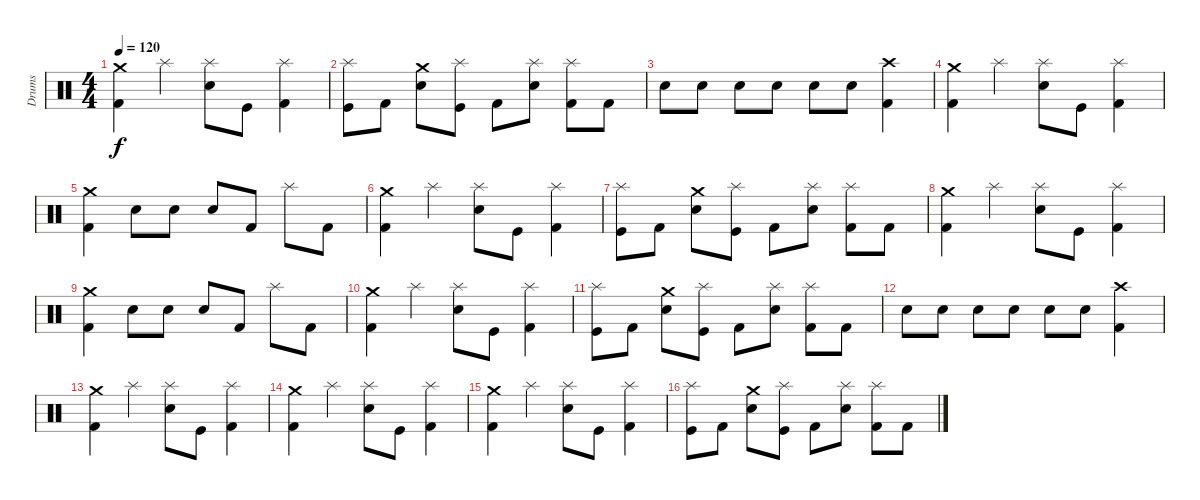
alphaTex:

\track ("Drums" "Drums") {instrument percussion}
\staff {score}
\articulation defaults
\ts (4 4)
\tempo 120
\clef neutral
\ks c
("Crash medium (hit)" "Kick (hit) 2").4{dy f} "Splash (hit)".4 ("Splash (hit)" "Snare (hit) 2").8 "Kick (hit)".8 ("Splash (hit)" "Kick (hit) 2").4 |
("Splash (hit)" "Kick (hit)").8 "Kick (hit) 2".8 ("Crash medium (hit)" "Snare (hit) 2").8 ("Splash (hit)" "Kick (hit)").8 "Kick (hit) 2".8 ("Splash (hit)" "Snare (hit) 2").8 ("Splash (hit)" "Kick (hit) 2").8 "Kick (hit) 2".8 |
"Snare (hit) 2".8 "Snare (hit) 2".8 "Snare (hit) 2".8 "Snare (hit) 2".8 "Snare (hit) 2".8 "Snare (hit) 2".8 ("Crash high (hit)" "Kick (hit) 2").4 |
("Crash medium (hit)" "Kick (hit) 2").4 "Splash (hit)".4 ("Splash (hit)" "Snare (hit) 2").8 "Kick (hit)".8 ("Splash (hit)" "Kick (hit) 2").4 |
("Crash medium (hit)" "Kick (hit) 2").4 "Snare (hit) 2".8 "Snare (hit) 2".8 "Snare (hit) 2".8 "Kick (hit) 2".8 "Splash (hit)".8 "Kick (hit) 2".8 |
("Crash medium (hit)" "Kick (hit) 2").4 "Splash (hit)".4 ("Splash (hit)" "Snare (hit) 2").8 "Kick (hit)".8 ("Splash (hit)" "Kick (hit) 2").4 |
("Splash (hit)" "Kick (hit)").8 "Kick (hit) 2".8 ("Crash medium (hit)" "Snare (hit) 2").8 ("Splash (hit)" "Kick (hit)").8 "Kick (hit) 2".8 ("Splash (hit)" "Snare (hit) 2").8 ("Splash (hit)" "Kick (hit) 2").8 "Kick (hit) 2".8 |
("Crash medium (hit)" "Kick (hit) 2").4 "Splash (hit)".4 ("Splash (hit)" "Snare (hit) 2").8 "Kick (hit)".8 ("Splash (hit)" "Kick (hit) 2").4 |
("Crash medium (hit)" "Kick (hit) 2").4 "Snare (hit) 2".8 "Snare (hit) 2".8 "Snare (hit) 2".8 "Kick (hit) 2".8 "Splash (hit)".8 "Kick (hit) 2".8 |
("Crash medium (hit)" "Kick (hit) 2").4 "Splash (hit)".4 ("Splash (hit)" "Snare (hit) 2").8 "Kick (hit)".8 ("Splash (hit)" "Kick (hit) 2").4 |
("Splash (hit)" "Kick (hit)").8 "Kick (hit) 2".8 ("Crash medium (hit)" "Snare (hit) 2").8 ("Splash (hit)" "Kick (hit)").8 "Kick (hit) 2".8 ("Splash (hit)" "Snare (hit) 2").8 ("Splash (hit)" "Kick (hit) 2").8 "Kick (hit) 2".8 |
"Snare (hit) 2".8 "Snare (hit) 2".8 "Snare (hit) 2".8 "Snare (hit) 2".8 "Snare (hit) 2".8 "Snare (hit) 2".8 ("Crash high (hit)" "Kick (hit) 2").4 |
("Crash medium (hit)" "Kick (hit) 2").4 "Splash (hit)".4 ("Splash (hit)" "Snare (hit) 2").8 "Kick (hit)".8 ("Splash (hit)" "Kick (hit) 2").4 |
("Crash medium (hit)" "Kick (hit) 2").4 "Splash (hit)".4 ("Splash (hit)" "Snare (hit) 2").8 "Kick (hit)".8 ("Splash (hit)" "Kick (hit) 2").4 |
("Crash medium (hit)" "Kick (hit) 2").4 "Splash (hit)".4 ("Splash (hit)" "Snare (hit) 2").8 "Kick (hit)".8 ("Splash (hit)" "Kick (hit) 2").4 |
("Splash (hit)" "Kick (hit)").8 "Kick (hit) 2".8 ("Crash medium (hit)" "Snare (hit) 2").8 ("Splash (hit)" "Kick (hit)").8 "Kick (hit) 2".8 ("Splash (hit)" "Snare (hit) 2").8 ("Splash (hit)" "Kick (hit) 2").8 "Kick (hit) 2".8
